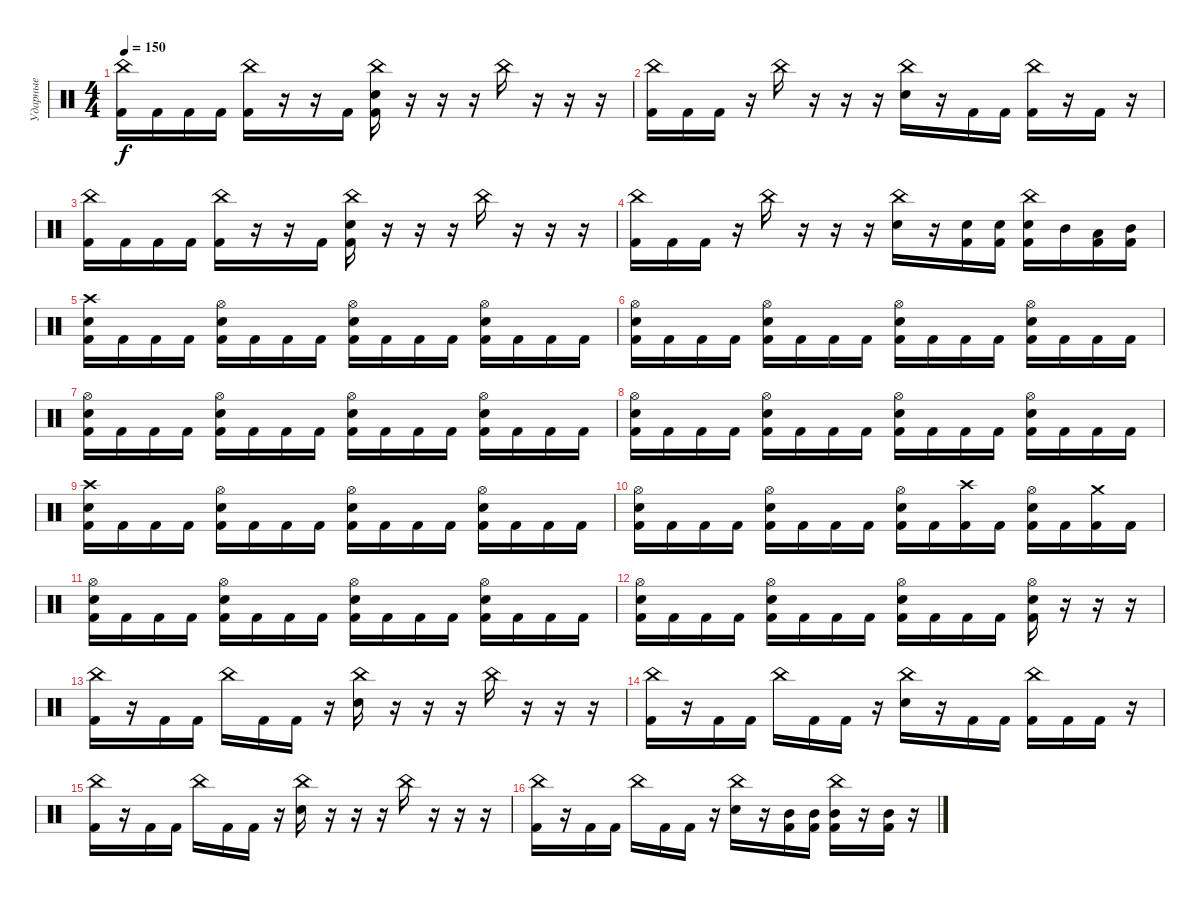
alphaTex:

\track ("Ударные" "Ударные") {instrument percussion}
\staff {score}
\articulation defaults
\ts (4 4)
\tempo 150
\clef neutral
\ks c
("China (hit)" "Kick (hit) 2").16{dy f} "Kick (hit) 2".16 "Kick (hit) 2".16 "Kick (hit) 2".16 ("China (hit)" "Kick (hit) 2").16 r.16 r.16 "Kick (hit) 2".16 ("China (hit)" "Electric Snare (hit)" "Kick (hit) 2").16 r.16 r.16 r.16 "China (hit)".16 r.16 r.16 r.16 |
("China (hit)" "Kick (hit) 2").16 "Kick (hit) 2".16 "Kick (hit) 2".16 r.16 "China (hit)".16 r.16 r.16 r.16 ("China (hit)" "Electric Snare (hit)").16 r.16 "Kick (hit) 2".16 "Kick (hit) 2".16 ("China (hit)" "Kick (hit) 2").16 r.16 "Kick (hit) 2".16 r.16 |
("China (hit)" "Kick (hit) 2").16 "Kick (hit) 2".16 "Kick (hit) 2".16 "Kick (hit) 2".16 ("China (hit)" "Kick (hit) 2").16 r.16 r.16 "Kick (hit) 2".16 ("China (hit)" "Electric Snare (hit)" "Kick (hit) 2").16 r.16 r.16 r.16 "China (hit)".16 r.16 r.16 r.16 |
("China (hit)" "Kick (hit) 2").16 "Kick (hit) 2".16 "Kick (hit) 2".16 r.16 "China (hit)".16 r.16 r.16 r.16 ("China (hit)" "Electric Snare (hit)").16 r.16 ("Electric Snare (hit)" "Kick (hit) 2").16 ("Electric Snare (hit)" "Kick (hit) 2").16 ("China (hit)" "Electric Snare (hit)" "Kick (hit) 2").16 "Mid Tom (hit)".16 ("Low Tom (hit)" "Kick (hit) 2").16 ("Mid Tom (hit)" "Kick (hit) 2").16 |
("Crash high (hit)" "Electric Snare (hit)" "Kick (hit) 2").16 "Kick (hit) 2".16 "Kick (hit) 2".16 "Kick (hit) 2".16 ("Hi-Hat (open)" "Electric Snare (hit)" "Kick (hit) 2").16 "Kick (hit) 2".16 "Kick (hit) 2".16 "Kick (hit) 2".16 ("Hi-Hat (open)" "Electric Snare (hit)" "Kick (hit) 2").16 "Kick (hit) 2".16 "Kick (hit) 2".16 "Kick (hit) 2".16 ("Hi-Hat (open)" "Electric Snare (hit)" "Kick (hit) 2").16 "Kick (hit) 2".16 "Kick (hit) 2".16 "Kick (hit) 2".16 |
("Hi-Hat (open)" "Electric Snare (hit)" "Kick (hit) 2").16 "Kick (hit) 2".16 "Kick (hit) 2".16 "Kick (hit) 2".16 ("Hi-Hat (open)" "Electric Snare (hit)" "Kick (hit) 2").16 "Kick (hit) 2".16 "Kick (hit) 2".16 "Kick (hit) 2".16 ("Hi-Hat (open)" "Electric Snare (hit)" "Kick (hit) 2").16 "Kick (hit) 2".16 "Kick (hit) 2".16 "Kick (hit) 2".16 ("Hi-Hat (open)" "Electric Snare (hit)" "Kick (hit) 2").16 "Kick (hit) 2".16 "Kick (hit) 2".16 "Kick (hit) 2".16 |
("Hi-Hat (open)" "Electric Snare (hit)" "Kick (hit) 2").16 "Kick (hit) 2".16 "Kick (hit) 2".16 "Kick (hit) 2".16 ("Hi-Hat (open)" "Electric Snare (hit)" "Kick (hit) 2").16 "Kick (hit) 2".16 "Kick (hit) 2".16 "Kick (hit) 2".16 ("Hi-Hat (open)" "Electric Snare (hit)" "Kick (hit) 2").16 "Kick (hit) 2".16 "Kick (hit) 2".16 "Kick (hit) 2".16 ("Hi-Hat (open)" "Electric Snare (hit)" "Kick (hit) 2").16 "Kick (hit) 2".16 "Kick (hit) 2".16 "Kick (hit) 2".16 |
("Hi-Hat (open)" "Electric Snare (hit)" "Kick (hit) 2").16 "Kick (hit) 2".16 "Kick (hit) 2".16 "Kick (hit) 2".16 ("Hi-Hat (open)" "Electric Snare (hit)" "Kick (hit) 2").16 "Kick (hit) 2".16 "Kick (hit) 2".16 "Kick (hit) 2".16 ("Hi-Hat (open)" "Electric Snare (hit)" "Kick (hit) 2").16 "Kick (hit) 2".16 "Kick (hit) 2".16 "Kick (hit) 2".16 ("Hi-Hat (open)" "Electric Snare (hit)" "Kick (hit) 2").16 "Kick (hit) 2".16 "Kick (hit) 2".16 "Kick (hit) 2".16 |
("Crash high (hit)" "Electric Snare (hit)" "Kick (hit) 2").16 "Kick (hit) 2".16 "Kick (hit) 2".16 "Kick (hit) 2".16 ("Hi-Hat (open)" "Electric Snare (hit)" "Kick (hit) 2").16 "Kick (hit) 2".16 "Kick (hit) 2".16 "Kick (hit) 2".16 ("Hi-Hat (open)" "Electric Snare (hit)" "Kick (hit) 2").16 "Kick (hit) 2".16 "Kick (hit) 2".16 "Kick (hit) 2".16 ("Hi-Hat (open)" "Electric Snare (hit)" "Kick (hit) 2").16 "Kick (hit) 2".16 "Kick (hit) 2".16 "Kick (hit) 2".16 |
("Hi-Hat (open)" "Electric Snare (hit)" "Kick (hit) 2").16 "Kick (hit) 2".16 "Kick (hit) 2".16 "Kick (hit) 2".16 ("Hi-Hat (open)" "Electric Snare (hit)" "Kick (hit) 2").16 "Kick (hit) 2".16 "Kick (hit) 2".16 "Kick (hit) 2".16 ("Hi-Hat (open)" "Electric Snare (hit)" "Kick (hit) 2").16 "Kick (hit) 2".16 ("Crash high (hit)" "Kick (hit) 2").16 "Kick (hit) 2".16 ("Hi-Hat (open)" "Electric Snare (hit)" "Kick (hit) 2").16 "Kick (hit) 2".16 ("Crash medium (hit)" "Kick (hit) 2").16 "Kick (hit) 2".16 |
("Hi-Hat (open)" "Electric Snare (hit)" "Kick (hit) 2").16 "Kick (hit) 2".16 "Kick (hit) 2".16 "Kick (hit) 2".16 ("Hi-Hat (open)" "Electric Snare (hit)" "Kick (hit) 2").16 "Kick (hit) 2".16 "Kick (hit) 2".16 "Kick (hit) 2".16 ("Hi-Hat (open)" "Electric Snare (hit)" "Kick (hit) 2").16 "Kick (hit) 2".16 "Kick (hit) 2".16 "Kick (hit) 2".16 ("Hi-Hat (open)" "Electric Snare (hit)" "Kick (hit) 2").16 "Kick (hit) 2".16 "Kick (hit) 2".16 "Kick (hit) 2".16 |
("Hi-Hat (open)" "Electric Snare (hit)" "Kick (hit) 2").16 "Kick (hit) 2".16 "Kick (hit) 2".16 "Kick (hit) 2".16 ("Hi-Hat (open)" "Electric Snare (hit)" "Kick (hit) 2").16 "Kick (hit) 2".16 "Kick (hit) 2".16 "Kick (hit) 2".16 ("Hi-Hat (open)" "Electric Snare (hit)" "Kick (hit) 2").16 "Kick (hit) 2".16 "Kick (hit) 2".16 "Kick (hit) 2".16 ("Hi-Hat (open)" "Electric Snare (hit)" "Kick (hit) 2").16 r.16 r.16 r.16 |
("China (hit)" "Kick (hit) 2").16 r.16 "Kick (hit) 2".16 "Kick (hit) 2".16 "China (hit)".16 "Kick (hit) 2".16 "Kick (hit) 2".16 r.16 ("China (hit)" "Electric Snare (hit)").16 r.16 r.16 r.16 "China (hit)".16 r.16 r.16 r.16 |
("China (hit)" "Kick (hit) 2").16 r.16 "Kick (hit) 2".16 "Kick (hit) 2".16 "China (hit)".16 "Kick (hit) 2".16 "Kick (hit) 2".16 r.16 ("China (hit)" "Electric Snare (hit)").16 r.16 "Kick (hit) 2".16 "Kick (hit) 2".16 ("China (hit)" "Kick (hit) 2").16 "Kick (hit) 2".16 "Kick (hit) 2".16 r.16 |
("China (hit)" "Kick (hit) 2").16 r.16 "Kick (hit) 2".16 "Kick (hit) 2".16 "China (hit)".16 "Kick (hit) 2".16 "Kick (hit) 2".16 r.16 ("China (hit)" "Electric Snare (hit)").16 r.16 r.16 r.16 "China (hit)".16 r.16 r.16 r.16 |
("China (hit)" "Kick (hit) 2").16 r.16 "Kick (hit) 2".16 "Kick (hit) 2".16 "China (hit)".16 "Kick (hit) 2".16 "Kick (hit) 2".16 r.16 ("China (hit)" "Electric Snare (hit)").16 r.16 ("Mid Tom (hit)" "Kick (hit) 2").16 ("Mid Tom (hit)" "Kick (hit) 2").16 ("China (hit)" "Mid Tom (hit)" "Kick (hit) 2").16 r.16 ("Mid Tom (hit)" "Kick (hit) 2").16 r.16
